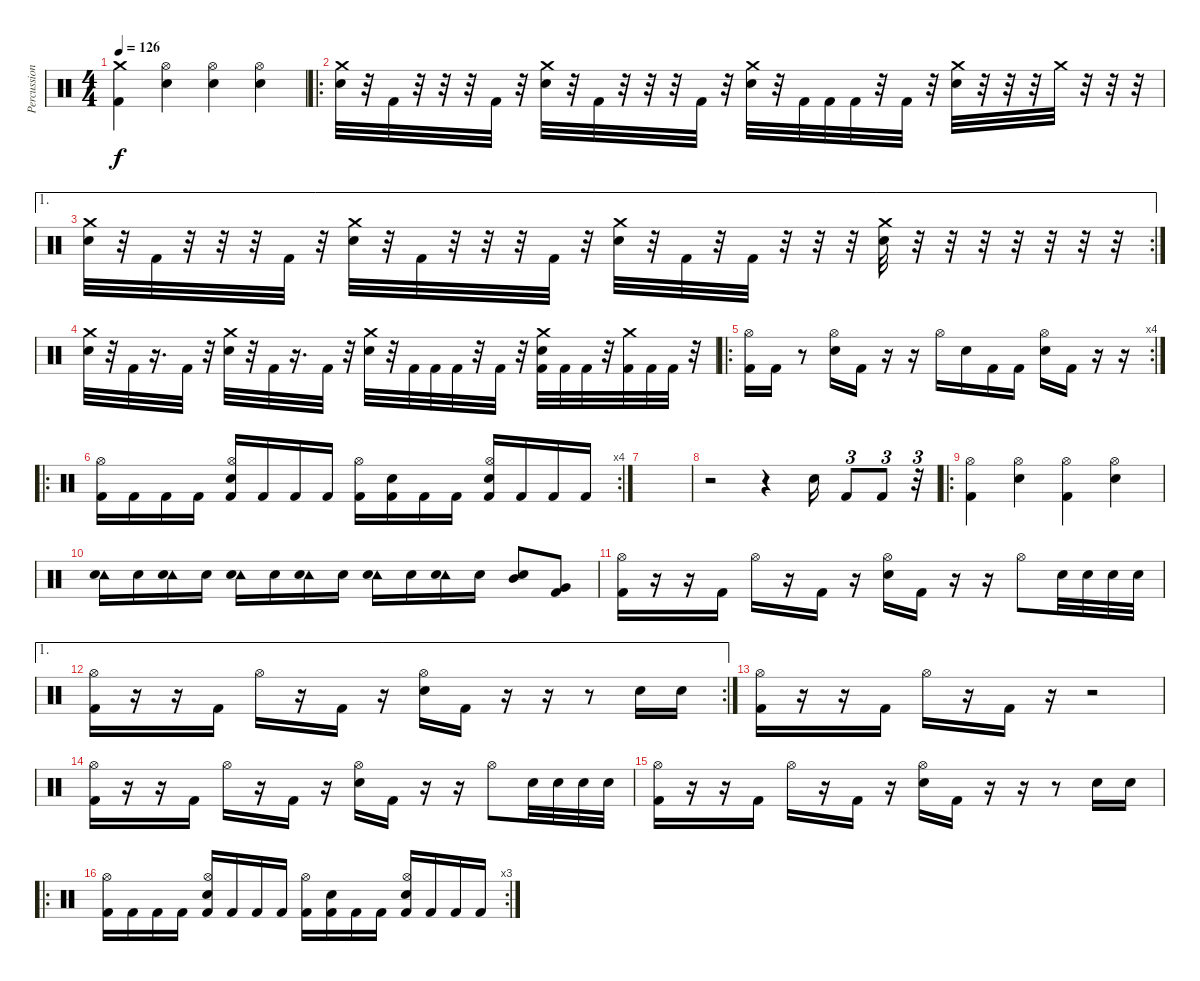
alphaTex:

\track ("Percussions" "Percussion") {instrument percussion}
\staff {score}
\articulation defaults
\ts (4 4)
\tempo 126
\clef neutral
\ks c
("Crash medium (hit)" "Kick (hit) 2").4{dy f} ("Hi-Hat (open)" "Electric Snare (hit)").4 ("Hi-Hat (open)" "Electric Snare (hit)").4 ("Hi-Hat (open)" "Electric Snare (hit)").4 |
\ro
("Crash medium (hit)" "Electric Snare (hit)").32 r.32 "Kick (hit) 2".32 r.32 r.32 r.32 "Kick (hit) 2".32 r.32 ("Crash medium (hit)" "Electric Snare (hit)").32 r.32 "Kick (hit) 2".32 r.32 r.32 r.32 "Kick (hit) 2".32 r.32 ("Crash medium (hit)" "Electric Snare (hit)").32 r.32 "Kick (hit) 2".32 "Kick (hit) 2".32 "Kick (hit) 2".32 r.32 "Kick (hit) 2".32 r.32 ("Crash medium (hit)" "Electric Snare (hit)").32 r.32 r.32 r.32 "Crash medium (hit)".32 r.32 r.32 r.32 |
\ae 1
\rc 2
("Crash medium (hit)" "Electric Snare (hit)").32 r.32 "Kick (hit) 2".32 r.32 r.32 r.32 "Kick (hit) 2".32 r.32 ("Crash medium (hit)" "Electric Snare (hit)").32 r.32 "Kick (hit) 2".32 r.32 r.32 r.32 "Kick (hit) 2".32 r.32 ("Crash medium (hit)" "Electric Snare (hit)").32 r.32 "Kick (hit) 2".32 r.32 "Kick (hit) 2".32 r.32 r.32 r.32 ("Crash medium (hit)" "Electric Snare (hit)").32 r.32 r.32 r.32 r.32 r.32 r.32 r.32 |
("Crash medium (hit)" "Electric Snare (hit)").32 r.32 "Kick (hit) 2".32 r.16{d} "Kick (hit) 2".32 r.32 ("Crash medium (hit)" "Electric Snare (hit)").32 r.32 "Kick (hit) 2".32 r.16{d} "Kick (hit) 2".32 r.32 ("Crash medium (hit)" "Electric Snare (hit)").32 r.32 "Kick (hit) 2".32 "Kick (hit) 2".32 "Kick (hit) 2".32 r.32 "Kick (hit) 2".32 r.32 ("Crash medium (hit)" "Electric Snare (hit)" "Kick (hit) 2").32 "Kick (hit) 2".32 "Kick (hit) 2".32 r.32 ("Crash medium (hit)" "Kick (hit) 2").32 "Kick (hit) 2".32 "Kick (hit) 2".32 r.32 |
\ro
\rc 4
("Hi-Hat (open)" "Kick (hit) 2").16 "Kick (hit) 2".16 r.8 ("Hi-Hat (open)" "Electric Snare (hit)").16 "Kick (hit) 2".16 r.16 r.16 "Hi-Hat (open)".16 "Electric Snare (hit)".16 "Kick (hit) 2".16 "Kick (hit) 2".16 ("Hi-Hat (open)" "Electric Snare (hit)").16 "Kick (hit) 2".16 r.16 r.16 |
\ro
\rc 4
("Hi-Hat (open)" "Kick (hit) 2").16 "Kick (hit) 2".16 "Kick (hit) 2".16 "Kick (hit) 2".16 ("Hi-Hat (open)" "Electric Snare (hit)" "Kick (hit) 2").16 "Kick (hit) 2".16 "Kick (hit) 2".16 "Kick (hit) 2".16 ("Hi-Hat (open)" "Kick (hit) 2").16 ("Electric Snare (hit)" "Kick (hit) 2").16 "Kick (hit) 2".16 "Kick (hit) 2".16 ("Hi-Hat (open)" "Electric Snare (hit)" "Kick (hit) 2").16 "Kick (hit) 2".16 "Kick (hit) 2".16 "Kick (hit) 2".16 |
|
r.2 r.4 "Electric Snare (hit)".16 "Kick (hit) 2".8{tu (3 2)} "Kick (hit) 2".8{tu (3 2)} r.32{tu (3 2)} |
\ro
("Hi-Hat (open)" "Kick (hit) 2").4 ("Hi-Hat (open)" "Electric Snare (hit)").4 ("Hi-Hat (open)" "Kick (hit) 2").4 ("Hi-Hat (open)" "Electric Snare (hit)").4 |
("Tambourine (hit)" "Electric Snare (hit)").16 "Electric Snare (hit)".16 ("Tambourine (hit)" "Electric Snare (hit)").16 "Electric Snare (hit)".16 ("Tambourine (hit)" "Electric Snare (hit)").16 "Electric Snare (hit)".16 ("Tambourine (hit)" "Electric Snare (hit)").16 "Electric Snare (hit)".16 ("Tambourine (hit)" "Electric Snare (hit)").16 "Electric Snare (hit)".16 ("Tambourine (hit)" "Electric Snare (hit)").16 "Electric Snare (hit)".16 ("Mid Tom (hit)" "Electric Snare (hit)").8 ("Very Low Tom (hit)" "Kick (hit) 2").8 |
("Hi-Hat (open)" "Kick (hit) 2").16 r.16 r.16 "Kick (hit) 2".16 "Hi-Hat (open)".16 r.16 "Kick (hit) 2".16 r.16 ("Hi-Hat (open)" "Electric Snare (hit)").16 "Kick (hit) 2".16 r.16 r.16 "Hi-Hat (open)".8 "Electric Snare (hit)".32 "Electric Snare (hit)".32 "Electric Snare (hit)".32 "Electric Snare (hit)".32 |
\ae 1
\rc 2
("Hi-Hat (open)" "Kick (hit) 2").16 r.16 r.16 "Kick (hit) 2".16 "Hi-Hat (open)".16 r.16 "Kick (hit) 2".16 r.16 ("Hi-Hat (open)" "Electric Snare (hit)").16 "Kick (hit) 2".16 r.16 r.16 r.8 "Electric Snare (hit)".16 "Electric Snare (hit)".16 |
("Hi-Hat (open)" "Kick (hit) 2").16 r.16 r.16 "Kick (hit) 2".16 "Hi-Hat (open)".16 r.16 "Kick (hit) 2".16 r.16 r.2 |
("Hi-Hat (open)" "Kick (hit) 2").16 r.16 r.16 "Kick (hit) 2".16 "Hi-Hat (open)".16 r.16 "Kick (hit) 2".16 r.16 ("Hi-Hat (open)" "Electric Snare (hit)").16 "Kick (hit) 2".16 r.16 r.16 "Hi-Hat (open)".8 "Electric Snare (hit)".32 "Electric Snare (hit)".32 "Electric Snare (hit)".32 "Electric Snare (hit)".32 |
("Hi-Hat (open)" "Kick (hit) 2").16 r.16 r.16 "Kick (hit) 2".16 "Hi-Hat (open)".16 r.16 "Kick (hit) 2".16 r.16 ("Hi-Hat (open)" "Electric Snare (hit)").16 "Kick (hit) 2".16 r.16 r.16 r.8 "Electric Snare (hit)".16 "Electric Snare (hit)".16 |
\ro
\rc 3
("Hi-Hat (open)" "Kick (hit) 2").16 "Kick (hit) 2".16 "Kick (hit) 2".16 "Kick (hit) 2".16 ("Hi-Hat (open)" "Electric Snare (hit)" "Kick (hit) 2").16 "Kick (hit) 2".16 "Kick (hit) 2".16 "Kick (hit) 2".16 ("Hi-Hat (open)" "Kick (hit) 2").16 ("Electric Snare (hit)" "Kick (hit) 2").16 "Kick (hit) 2".16 "Kick (hit) 2".16 ("Hi-Hat (open)" "Electric Snare (hit)" "Kick (hit) 2").16 "Kick (hit) 2".16 "Kick (hit) 2".16 "Kick (hit) 2".16
